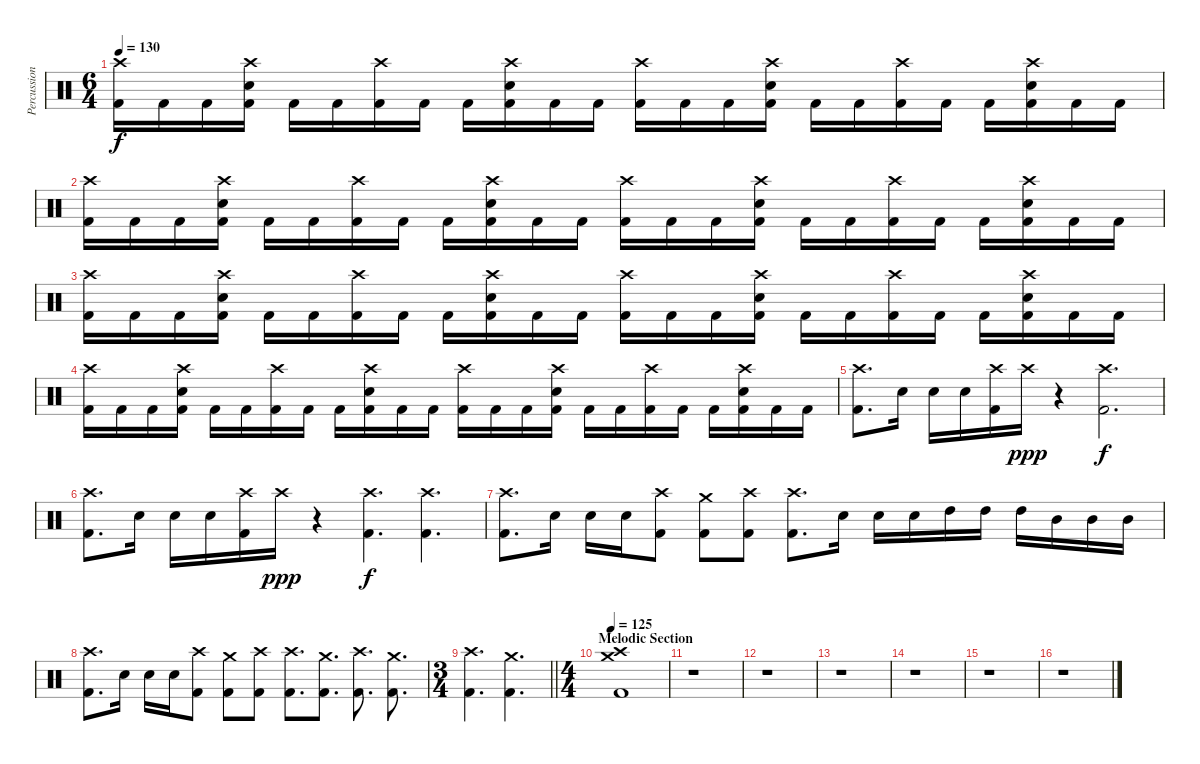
\track ("Percussion" "Percussion") {mute instrument percussion}
\staff {score}
\articulation defaults
\ts (6 4)
\tempo 130
\clef neutral
\ks c
("Crash high (hit)" "Kick (hit) 2").16{dy f} "Kick (hit) 2".16 "Kick (hit) 2".16 ("Crash high (hit)" "Electric Snare (hit)" "Kick (hit) 2").16 "Kick (hit) 2".16 "Kick (hit) 2".16 ("Crash high (hit)" "Kick (hit) 2").16 "Kick (hit) 2".16 "Kick (hit) 2".16 ("Crash high (hit)" "Electric Snare (hit)" "Kick (hit) 2").16 "Kick (hit) 2".16 "Kick (hit) 2".16 ("Crash high (hit)" "Kick (hit) 2").16 "Kick (hit) 2".16 "Kick (hit) 2".16 ("Crash high (hit)" "Electric Snare (hit)" "Kick (hit) 2").16 "Kick (hit) 2".16 "Kick (hit) 2".16 ("Crash high (hit)" "Kick (hit) 2").16 "Kick (hit) 2".16 "Kick (hit) 2".16 ("Crash high (hit)" "Electric Snare (hit)" "Kick (hit) 2").16 "Kick (hit) 2".16 "Kick (hit) 2".16 |
("Crash high (hit)" "Kick (hit) 2").16 "Kick (hit) 2".16 "Kick (hit) 2".16 ("Crash high (hit)" "Electric Snare (hit)" "Kick (hit) 2").16 "Kick (hit) 2".16 "Kick (hit) 2".16 ("Crash high (hit)" "Kick (hit) 2").16 "Kick (hit) 2".16 "Kick (hit) 2".16 ("Crash high (hit)" "Electric Snare (hit)" "Kick (hit) 2").16 "Kick (hit) 2".16 "Kick (hit) 2".16 ("Crash high (hit)" "Kick (hit) 2").16 "Kick (hit) 2".16 "Kick (hit) 2".16 ("Crash high (hit)" "Electric Snare (hit)" "Kick (hit) 2").16 "Kick (hit) 2".16 "Kick (hit) 2".16 ("Crash high (hit)" "Kick (hit) 2").16 "Kick (hit) 2".16 "Kick (hit) 2".16 ("Crash high (hit)" "Electric Snare (hit)" "Kick (hit) 2").16 "Kick (hit) 2".16 "Kick (hit) 2".16 |
("Crash high (hit)" "Kick (hit) 2").16 "Kick (hit) 2".16 "Kick (hit) 2".16 ("Crash high (hit)" "Electric Snare (hit)" "Kick (hit) 2").16 "Kick (hit) 2".16 "Kick (hit) 2".16 ("Crash high (hit)" "Kick (hit) 2").16 "Kick (hit) 2".16 "Kick (hit) 2".16 ("Crash high (hit)" "Electric Snare (hit)" "Kick (hit) 2").16 "Kick (hit) 2".16 "Kick (hit) 2".16 ("Crash high (hit)" "Kick (hit) 2").16 "Kick (hit) 2".16 "Kick (hit) 2".16 ("Crash high (hit)" "Electric Snare (hit)" "Kick (hit) 2").16 "Kick (hit) 2".16 "Kick (hit) 2".16 ("Crash high (hit)" "Kick (hit) 2").16 "Kick (hit) 2".16 "Kick (hit) 2".16 ("Crash high (hit)" "Electric Snare (hit)" "Kick (hit) 2").16 "Kick (hit) 2".16 "Kick (hit) 2".16 |
("Crash high (hit)" "Kick (hit) 2").16 "Kick (hit) 2".16 "Kick (hit) 2".16 ("Crash high (hit)" "Electric Snare (hit)" "Kick (hit) 2").16 "Kick (hit) 2".16 "Kick (hit) 2".16 ("Crash high (hit)" "Kick (hit) 2").16 "Kick (hit) 2".16 "Kick (hit) 2".16 ("Crash high (hit)" "Electric Snare (hit)" "Kick (hit) 2").16 "Kick (hit) 2".16 "Kick (hit) 2".16 ("Crash high (hit)" "Kick (hit) 2").16 "Kick (hit) 2".16 "Kick (hit) 2".16 ("Crash high (hit)" "Electric Snare (hit)" "Kick (hit) 2").16 "Kick (hit) 2".16 "Kick (hit) 2".16 ("Crash high (hit)" "Kick (hit) 2").16 "Kick (hit) 2".16 "Kick (hit) 2".16 ("Crash high (hit)" "Electric Snare (hit)" "Kick (hit) 2").16 "Kick (hit) 2".16 "Kick (hit) 2".16 |
("Crash high (hit)" "Kick (hit) 2").8{d} "Electric Snare (hit)".16 "Electric Snare (hit)".16 "Electric Snare (hit)".16 ("Crash high (hit)" "Kick (hit) 2").16 "Crash high (hit)".16{dy ppp} r.4 ("Crash high (hit)" "Kick (hit) 2").2{d dy f} |
("Crash high (hit)" "Kick (hit) 2").8{d} "Electric Snare (hit)".16 "Electric Snare (hit)".16 "Electric Snare (hit)".16 ("Crash high (hit)" "Kick (hit) 2").16 "Crash high (hit)".16{dy ppp} r.4 ("Crash high (hit)" "Kick (hit) 2").4{d dy f} ("Crash high (hit)" "Kick (hit) 2").4{d} |
("Crash high (hit)" "Kick (hit) 2").8{d} "Electric Snare (hit)".16 "Electric Snare (hit)".16 "Electric Snare (hit)".16 ("Crash high (hit)" "Kick (hit) 2").8 ("Crash medium (hit)" "Kick (hit) 2").8 ("Crash high (hit)" "Kick (hit) 2").8 ("Crash high (hit)" "Kick (hit) 2").8{d} "Electric Snare (hit)".16 "Electric Snare (hit)".16 "Electric Snare (hit)".16 "High Tom (hit)".16 "High Tom (hit)".16 "High Tom (hit)".16 "Mid Tom (hit)".16 "Mid Tom (hit)".16 "Mid Tom (hit)".16 |
("Crash high (hit)" "Kick (hit) 2").8{d} "Electric Snare (hit)".16 "Electric Snare (hit)".16 "Electric Snare (hit)".16 ("Crash high (hit)" "Kick (hit) 2").8 ("Crash medium (hit)" "Kick (hit) 2").8 ("Crash high (hit)" "Kick (hit) 2").8 ("Crash high (hit)" "Kick (hit) 2").8{d} ("Crash medium (hit)" "Kick (hit) 2").8{d} ("Crash high (hit)" "Kick (hit) 2").8{d} ("Crash medium (hit)" "Kick (hit) 2").8{d} |
\ts (3 4)
\barLineRight lightlight
("Crash high (hit)" "Kick (hit) 2").4{d} ("Crash medium (hit)" "Kick (hit) 2").4{d} |
\ts (4 4)
\section ("" "Melodic Section")
\tempo 125
("Crash high (hit)" "Crash medium (hit)" "Kick (hit) 2").1 |
r.1 |
r.1 |
r.1 |
r.1 |
r.1 |
r.1
